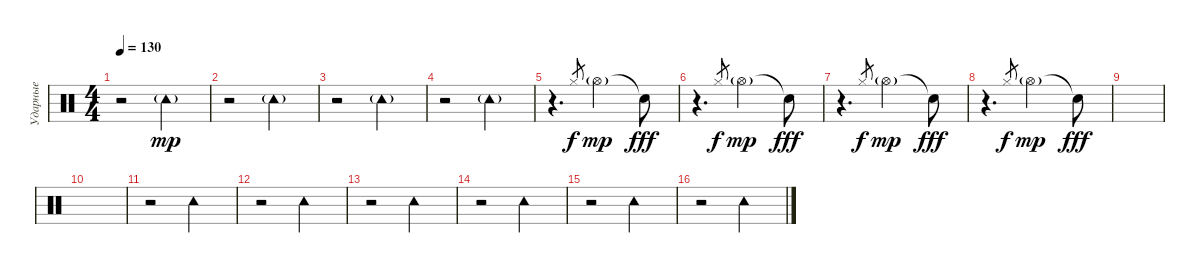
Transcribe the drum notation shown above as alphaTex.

\track ("Ударные" "Ударные") {instrument percussion}
\staff {score}
\articulation defaults
\ts (4 4)
\tempo 130
\clef neutral
\ks c
r.2{dy mp} "Tambourine (hit)"{g}.2 |
r.2 "Tambourine (hit)"{g}.2 |
r.2 "Tambourine (hit)"{g}.2 |
r.2 "Tambourine (hit)"{g}.2 |
r.4{d} "Hi-Hat (closed)".8{gr dy f} "Hi-Hat (open)"{g}.2{dy mp} "Snare (hit)"{t}.8{dy fff} |
r.4{d} "Hi-Hat (closed)".8{gr dy f} "Hi-Hat (open)"{g}.2{dy mp} "Snare (hit)"{t}.8{dy fff} |
r.4{d} "Hi-Hat (closed)".8{gr dy f} "Hi-Hat (open)"{g}.2{dy mp} "Snare (hit)"{t}.8{dy fff} |
r.4{d} "Hi-Hat (closed)".8{gr dy f} "Hi-Hat (open)"{g}.2{dy mp} "Snare (hit)"{t}.8{dy fff} |
|
|
r.2 "Tambourine (hit)".2 |
r.2 "Tambourine (hit)".2 |
r.2 "Tambourine (hit)".2 |
r.2 "Tambourine (hit)".2 |
r.2 "Tambourine (hit)".2 |
r.2 "Tambourine (hit)".2
